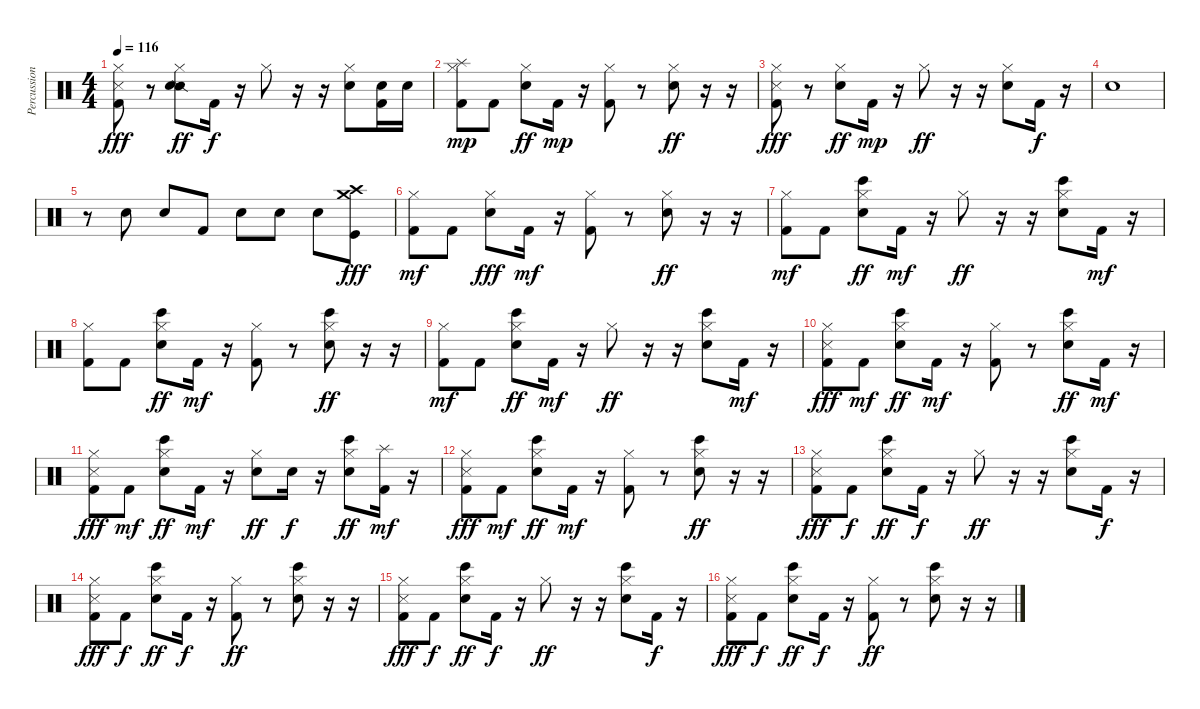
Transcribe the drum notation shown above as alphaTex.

\track ("Percussion" "Percussion") {instrument percussion}
\staff {score}
\articulation defaults
\ts (4 4)
\tempo 116
\clef neutral
\ks c
("Hi-Hat (closed)" "Kick (hit) 2" "Snare (side stick) 3").8{dy fff} r.8 ("Hi-Hat (closed)" "Snare (side stick) 2" "Electric Snare (hit)").8{dy ff} "Kick (hit) 2".16{dy f} r.16 "Hi-Hat (closed)".8 r.16 r.16 ("Hi-Hat (closed)" "Electric Snare (hit)").8 ("Kick (hit) 2" "Snare (hit) 2").16 "Snare (hit) 2".16 |
("Hi-Hat (closed)" "Kick (hit) 2" "Splash (hit)").8{dy mp} "Kick (hit) 2".8 ("Hi-Hat (closed)" "Electric Snare (hit)").8{dy ff} "Kick (hit) 2".16{dy mp} r.16 ("Hi-Hat (closed)" "Kick (hit) 2").8 r.8 ("Hi-Hat (closed)" "Electric Snare (hit)").8{dy ff} r.16 r.16 |
("Hi-Hat (closed)" "Kick (hit) 2" "Snare (side stick) 3").8{dy fff} r.8 ("Hi-Hat (closed)" "Electric Snare (hit)").8{dy ff} "Kick (hit) 2".16{dy mp} r.16 "Hi-Hat (closed)".8{dy ff} r.16 r.16 ("Hi-Hat (closed)" "Electric Snare (hit)").8 "Kick (hit) 2".16{dy f} r.16 |
"Electric Snare (hit)".1 |
r.8 "Electric Snare (hit)".8 "Electric Snare (hit)".8 "Kick (hit) 2".8 "Electric Snare (hit)".8 "Electric Snare (hit)".8 "Electric Snare (hit)".8 ("Crash high (hit)" "Crash medium (hit)" "Kick (hit)").8{dy fff} |
("Hi-Hat (closed)" "Kick (hit) 2").8{dy mf} "Kick (hit) 2".8 ("Hi-Hat (closed)" "Electric Snare (hit)").8{dy fff} "Kick (hit) 2".16{dy mf} r.16 ("Hi-Hat (closed)" "Kick (hit) 2").8 r.8 ("Hi-Hat (closed)" "Electric Snare (hit)").8{dy ff} r.16 r.16 |
("Hi-Hat (closed)" "Kick (hit) 2").8{dy mf} "Kick (hit) 2".8 ("Hi-Hat (closed)" "Electric Snare (hit)" "Bongo High (hit)").8{dy ff} "Kick (hit) 2".16{dy mf} r.16 "Hi-Hat (closed)".8{dy ff} r.16 r.16 ("Hi-Hat (closed)" "Electric Snare (hit)" "Bongo High (hit)").8 "Kick (hit) 2".16{dy mf} r.16 |
("Hi-Hat (closed)" "Kick (hit) 2").8 "Kick (hit) 2".8 ("Hi-Hat (closed)" "Electric Snare (hit)" "Bongo High (hit)").8{dy ff} "Kick (hit) 2".16{dy mf} r.16 ("Hi-Hat (closed)" "Kick (hit) 2").8 r.8 ("Hi-Hat (closed)" "Electric Snare (hit)" "Bongo High (hit)").8{dy ff} r.16 r.16 |
("Hi-Hat (closed)" "Kick (hit) 2").8{dy mf} "Kick (hit) 2".8 ("Hi-Hat (closed)" "Electric Snare (hit)" "Bongo High (hit)").8{dy ff} "Kick (hit) 2".16{dy mf} r.16 "Hi-Hat (closed)".8{dy ff} r.16 r.16 ("Hi-Hat (closed)" "Electric Snare (hit)" "Bongo High (hit)").8 "Kick (hit) 2".16{dy mf} r.16 |
("Hi-Hat (closed)" "Kick (hit) 2" "Snare (side stick) 3").8{dy fff} "Kick (hit) 2".8{dy mf} ("Hi-Hat (closed)" "Electric Snare (hit)" "Bongo High (hit)").8{dy ff} "Kick (hit) 2".16{dy mf} r.16 ("Hi-Hat (closed)" "Kick (hit) 2").8 r.8 ("Hi-Hat (closed)" "Electric Snare (hit)" "Bongo High (hit)").8{dy ff} "Kick (hit) 2".16{dy mf} r.16 |
("Hi-Hat (closed)" "Kick (hit) 2" "Snare (side stick) 3").8{dy fff} "Kick (hit) 2".8{dy mf} ("Hi-Hat (closed)" "Electric Snare (hit)" "Bongo High (hit)").8{dy ff} "Kick (hit) 2".16{dy mf} r.16 ("Hi-Hat (closed)" "Electric Snare (hit)").8{dy ff} "Electric Snare (hit)".16{dy f} r.16 ("Hi-Hat (closed)" "Electric Snare (hit)" "Bongo High (hit)").8{dy ff} ("Kick (hit) 2" "Splash (hit)").16{dy mf} r.16 |
("Hi-Hat (closed)" "Kick (hit) 2" "Snare (side stick) 3").8{dy fff} "Kick (hit) 2".8{dy mf} ("Hi-Hat (closed)" "Electric Snare (hit)" "Bongo High (hit)").8{dy ff} "Kick (hit) 2".16{dy mf} r.16 ("Hi-Hat (closed)" "Kick (hit) 2").8 r.8 ("Hi-Hat (closed)" "Electric Snare (hit)" "Bongo High (hit)").8{dy ff} r.16 r.16 |
("Hi-Hat (closed)" "Kick (hit) 2" "Snare (side stick) 3").8{dy fff} "Kick (hit) 2".8{dy f} ("Hi-Hat (closed)" "Electric Snare (hit)" "Bongo High (hit)").8{dy ff} "Kick (hit) 2".16{dy f} r.16 "Hi-Hat (closed)".8{dy ff} r.16 r.16 ("Hi-Hat (closed)" "Electric Snare (hit)" "Bongo High (hit)").8 "Kick (hit) 2".16{dy f} r.16 |
("Hi-Hat (closed)" "Kick (hit) 2" "Snare (side stick) 3").8{dy fff} "Kick (hit) 2".8{dy f} ("Hi-Hat (closed)" "Electric Snare (hit)" "Bongo High (hit)").8{dy ff} "Kick (hit) 2".16{dy f} r.16 ("Hi-Hat (closed)" "Kick (hit) 2").8{dy ff} r.8 ("Hi-Hat (closed)" "Electric Snare (hit)" "Bongo High (hit)").8 r.16 r.16 |
("Hi-Hat (closed)" "Kick (hit) 2" "Snare (side stick) 3").8{dy fff} "Kick (hit) 2".8{dy f} ("Hi-Hat (closed)" "Electric Snare (hit)" "Bongo High (hit)").8{dy ff} "Kick (hit) 2".16{dy f} r.16 "Hi-Hat (closed)".8{dy ff} r.16 r.16 ("Hi-Hat (closed)" "Electric Snare (hit)" "Bongo High (hit)").8 "Kick (hit) 2".16{dy f} r.16 |
("Hi-Hat (closed)" "Kick (hit) 2" "Snare (side stick) 3").8{dy fff} "Kick (hit) 2".8{dy f} ("Hi-Hat (closed)" "Electric Snare (hit)" "Bongo High (hit)").8{dy ff} "Kick (hit) 2".16{dy f} r.16 ("Hi-Hat (closed)" "Kick (hit) 2").8{dy ff} r.8 ("Hi-Hat (closed)" "Electric Snare (hit)" "Bongo High (hit)").8 r.16 r.16
